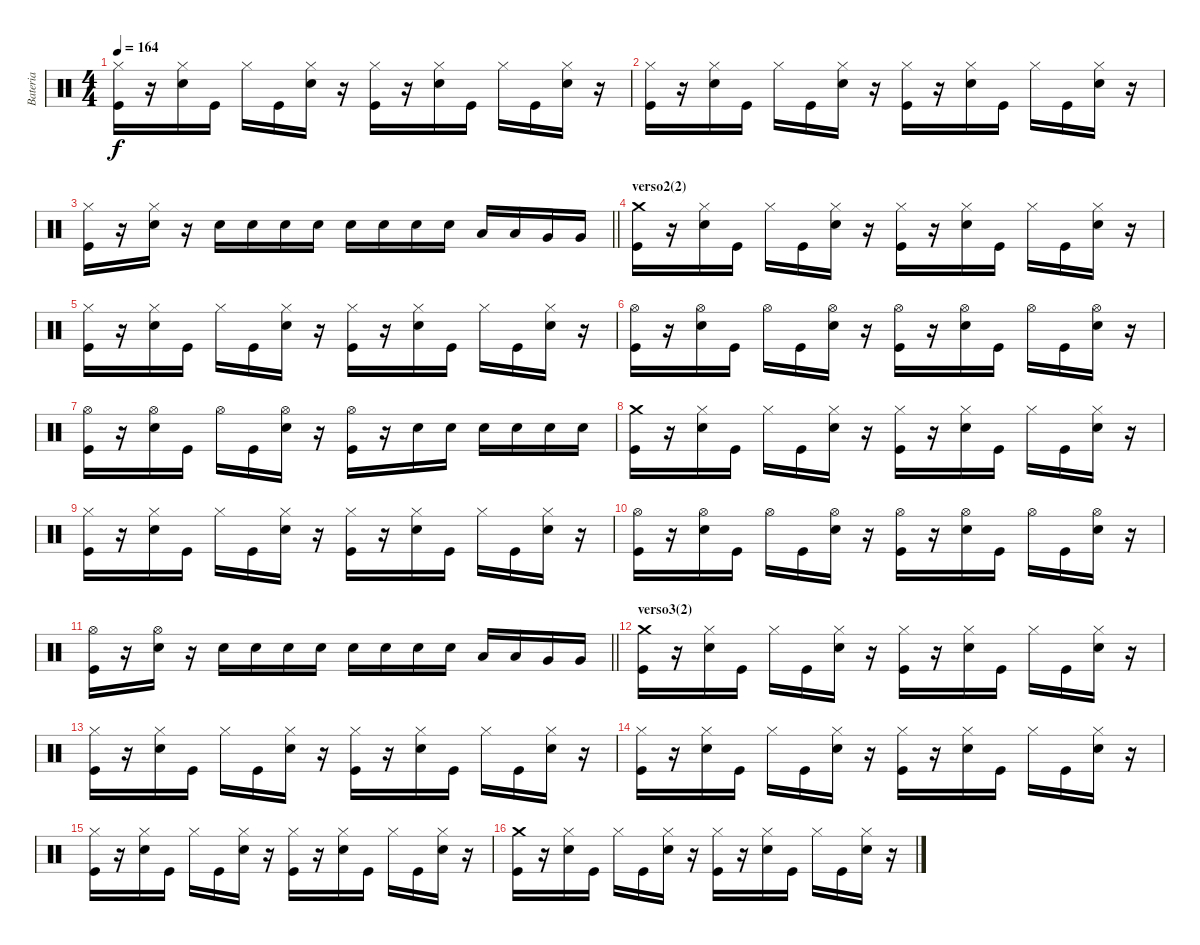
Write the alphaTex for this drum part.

\track ("Bateria" "Bateria") {instrument percussion}
\staff {score}
\articulation defaults
\ts (4 4)
\tempo 164
\clef neutral
\ks c
("Hi-Hat (closed)" "Kick (hit)").16{dy f} r.16 ("Hi-Hat (closed)" "Snare (hit) 2").16 "Kick (hit)".16 "Hi-Hat (closed)".16 "Kick (hit)".16 ("Hi-Hat (closed)" "Snare (hit) 2").16 r.16 ("Hi-Hat (closed)" "Kick (hit)").16 r.16 ("Hi-Hat (closed)" "Snare (hit) 2").16 "Kick (hit)".16 "Hi-Hat (closed)".16 "Kick (hit)".16 ("Hi-Hat (closed)" "Snare (hit) 2").16 r.16 |
("Hi-Hat (closed)" "Kick (hit)").16 r.16 ("Hi-Hat (closed)" "Snare (hit) 2").16 "Kick (hit)".16 "Hi-Hat (closed)".16 "Kick (hit)".16 ("Hi-Hat (closed)" "Snare (hit) 2").16 r.16 ("Hi-Hat (closed)" "Kick (hit)").16 r.16 ("Hi-Hat (closed)" "Snare (hit) 2").16 "Kick (hit)".16 "Hi-Hat (closed)".16 "Kick (hit)".16 ("Hi-Hat (closed)" "Snare (hit) 2").16 r.16 |
\barLineRight lightlight
("Hi-Hat (closed)" "Kick (hit)").16 r.16 ("Hi-Hat (closed)" "Snare (hit) 2").16 r.16 "Snare (hit) 2".16 "Snare (hit) 2".16 "Snare (hit) 2".16 "Snare (hit) 2".16 "Snare (hit) 2".16 "Snare (hit) 2".16 "Snare (hit) 2".16 "Snare (hit) 2".16 "Low Tom (hit)".16 "Low Tom (hit)".16 "Very Low Tom (hit)".16 "Very Low Tom (hit)".16 |
\section ("" "verso2(2)")
("Crash medium (hit)" "Kick (hit)").16 r.16 ("Hi-Hat (closed)" "Snare (hit) 2").16 "Kick (hit)".16 "Hi-Hat (closed)".16 "Kick (hit)".16 ("Hi-Hat (closed)" "Snare (hit) 2").16 r.16 ("Hi-Hat (closed)" "Kick (hit)").16 r.16 ("Hi-Hat (closed)" "Snare (hit) 2").16 "Kick (hit)".16 "Hi-Hat (closed)".16 "Kick (hit)".16 ("Hi-Hat (closed)" "Snare (hit) 2").16 r.16 |
("Hi-Hat (closed)" "Kick (hit)").16 r.16 ("Hi-Hat (closed)" "Snare (hit) 2").16 "Kick (hit)".16 "Hi-Hat (closed)".16 "Kick (hit)".16 ("Hi-Hat (closed)" "Snare (hit) 2").16 r.16 ("Hi-Hat (closed)" "Kick (hit)").16 r.16 ("Hi-Hat (closed)" "Snare (hit) 2").16 "Kick (hit)".16 "Hi-Hat (closed)".16 "Kick (hit)".16 ("Hi-Hat (closed)" "Snare (hit) 2").16 r.16 |
("Hi-Hat (open)" "Kick (hit)").16 r.16 ("Hi-Hat (open)" "Snare (hit) 2").16 "Kick (hit)".16 "Hi-Hat (open)".16 "Kick (hit)".16 ("Hi-Hat (open)" "Snare (hit) 2").16 r.16 ("Hi-Hat (open)" "Kick (hit)").16 r.16 ("Hi-Hat (open)" "Snare (hit) 2").16 "Kick (hit)".16 "Hi-Hat (open)".16 "Kick (hit)".16 ("Hi-Hat (open)" "Snare (hit) 2").16 r.16 |
("Hi-Hat (open)" "Kick (hit)").16 r.16 ("Hi-Hat (open)" "Snare (hit) 2").16 "Kick (hit)".16 "Hi-Hat (open)".16 "Kick (hit)".16 ("Hi-Hat (open)" "Snare (hit) 2").16 r.16 ("Hi-Hat (open)" "Kick (hit)").16 r.16 "Snare (hit) 2".16 "Snare (hit) 2".16 "Snare (hit) 2".16 "Snare (hit) 2".16 "Snare (hit) 2".16 "Snare (hit) 2".16 |
("Crash medium (hit)" "Kick (hit)").16 r.16 ("Hi-Hat (closed)" "Snare (hit) 2").16 "Kick (hit)".16 "Hi-Hat (closed)".16 "Kick (hit)".16 ("Hi-Hat (closed)" "Snare (hit) 2").16 r.16 ("Hi-Hat (closed)" "Kick (hit)").16 r.16 ("Hi-Hat (closed)" "Snare (hit) 2").16 "Kick (hit)".16 "Hi-Hat (closed)".16 "Kick (hit)".16 ("Hi-Hat (closed)" "Snare (hit) 2").16 r.16 |
("Hi-Hat (closed)" "Kick (hit)").16 r.16 ("Hi-Hat (closed)" "Snare (hit) 2").16 "Kick (hit)".16 "Hi-Hat (closed)".16 "Kick (hit)".16 ("Hi-Hat (closed)" "Snare (hit) 2").16 r.16 ("Hi-Hat (closed)" "Kick (hit)").16 r.16 ("Hi-Hat (closed)" "Snare (hit) 2").16 "Kick (hit)".16 "Hi-Hat (closed)".16 "Kick (hit)".16 ("Hi-Hat (closed)" "Snare (hit) 2").16 r.16 |
("Hi-Hat (open)" "Kick (hit)").16 r.16 ("Hi-Hat (open)" "Snare (hit) 2").16 "Kick (hit)".16 "Hi-Hat (open)".16 "Kick (hit)".16 ("Hi-Hat (open)" "Snare (hit) 2").16 r.16 ("Hi-Hat (open)" "Kick (hit)").16 r.16 ("Hi-Hat (open)" "Snare (hit) 2").16 "Kick (hit)".16 "Hi-Hat (open)".16 "Kick (hit)".16 ("Hi-Hat (open)" "Snare (hit) 2").16 r.16 |
\barLineRight lightlight
("Hi-Hat (open)" "Kick (hit)").16 r.16 ("Hi-Hat (open)" "Snare (hit) 2").16 r.16 "Snare (hit) 2".16 "Snare (hit) 2".16 "Snare (hit) 2".16 "Snare (hit) 2".16 "Snare (hit) 2".16 "Snare (hit) 2".16 "Snare (hit) 2".16 "Snare (hit) 2".16 "Low Tom (hit)".16 "Low Tom (hit)".16 "Very Low Tom (hit)".16 "Very Low Tom (hit)".16 |
\section ("" "verso3(2)")
("Crash medium (hit)" "Kick (hit)").16 r.16 ("Hi-Hat (closed)" "Snare (hit) 2").16 "Kick (hit)".16 "Hi-Hat (closed)".16 "Kick (hit)".16 ("Hi-Hat (closed)" "Snare (hit) 2").16 r.16 ("Hi-Hat (closed)" "Kick (hit)").16 r.16 ("Hi-Hat (closed)" "Snare (hit) 2").16 "Kick (hit)".16 "Hi-Hat (closed)".16 "Kick (hit)".16 ("Hi-Hat (closed)" "Snare (hit) 2").16 r.16 |
("Hi-Hat (closed)" "Kick (hit)").16 r.16 ("Hi-Hat (closed)" "Snare (hit) 2").16 "Kick (hit)".16 "Hi-Hat (closed)".16 "Kick (hit)".16 ("Hi-Hat (closed)" "Snare (hit) 2").16 r.16 ("Hi-Hat (closed)" "Kick (hit)").16 r.16 ("Hi-Hat (closed)" "Snare (hit) 2").16 "Kick (hit)".16 "Hi-Hat (closed)".16 "Kick (hit)".16 ("Hi-Hat (closed)" "Snare (hit) 2").16 r.16 |
("Hi-Hat (closed)" "Kick (hit)").16 r.16 ("Hi-Hat (closed)" "Snare (hit) 2").16 "Kick (hit)".16 "Hi-Hat (closed)".16 "Kick (hit)".16 ("Hi-Hat (closed)" "Snare (hit) 2").16 r.16 ("Hi-Hat (closed)" "Kick (hit)").16 r.16 ("Hi-Hat (closed)" "Snare (hit) 2").16 "Kick (hit)".16 "Hi-Hat (closed)".16 "Kick (hit)".16 ("Hi-Hat (closed)" "Snare (hit) 2").16 r.16 |
("Hi-Hat (closed)" "Kick (hit)").16 r.16 ("Hi-Hat (closed)" "Snare (hit) 2").16 "Kick (hit)".16 "Hi-Hat (closed)".16 "Kick (hit)".16 ("Hi-Hat (closed)" "Snare (hit) 2").16 r.16 ("Hi-Hat (closed)" "Kick (hit)").16 r.16 ("Hi-Hat (closed)" "Snare (hit) 2").16 "Kick (hit)".16 "Hi-Hat (closed)".16 "Kick (hit)".16 ("Hi-Hat (closed)" "Snare (hit) 2").16 r.16 |
("Crash medium (hit)" "Kick (hit)").16 r.16 ("Hi-Hat (closed)" "Snare (hit) 2").16 "Kick (hit)".16 "Hi-Hat (closed)".16 "Kick (hit)".16 ("Hi-Hat (closed)" "Snare (hit) 2").16 r.16 ("Hi-Hat (closed)" "Kick (hit)").16 r.16 ("Hi-Hat (closed)" "Snare (hit) 2").16 "Kick (hit)".16 "Hi-Hat (closed)".16 "Kick (hit)".16 ("Hi-Hat (closed)" "Snare (hit) 2").16 r.16
